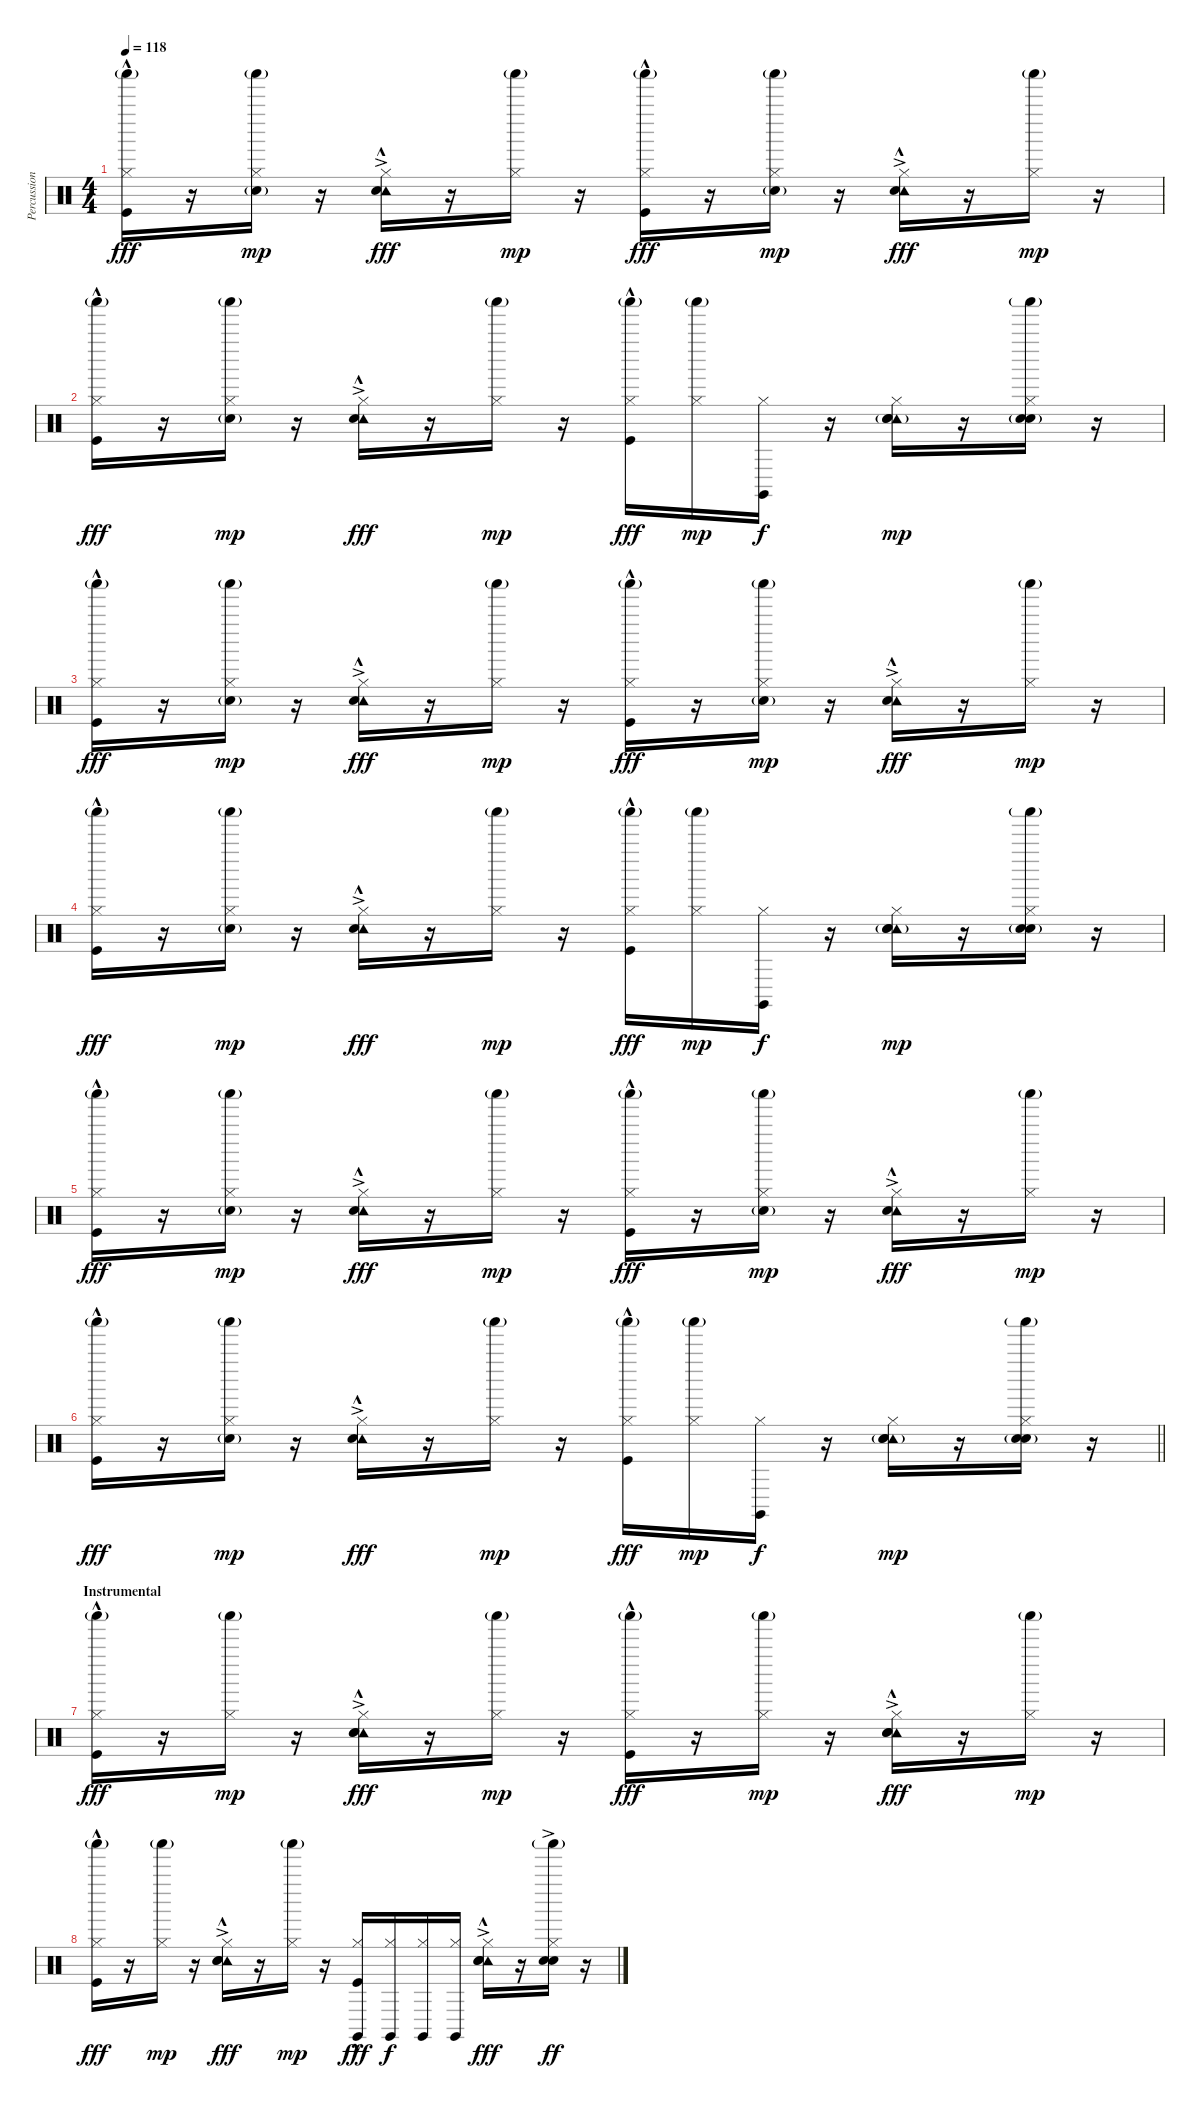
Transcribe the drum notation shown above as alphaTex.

\track ("Percussion" "Percussion") {instrument percussion}
\staff {score}
\articulation defaults
\ts (4 4)
\tempo 118
\clef neutral
\ks c
("Shaker (hit)"{g} "Hi-Hat (closed)" "Kick (hit)"{hac}).16{dy fff} r.16 ("Shaker (hit)"{g} "Hi-Hat (closed)" "Hand Clap (hit)"{g}).16{dy mp} r.16 ("Tambourine (hit)"{ac} "Hi-Hat (closed)" "Snare (hit) 2"{hac}).16{dy fff} r.16 ("Shaker (hit)"{g} "Hi-Hat (closed)").16{dy mp} r.16 ("Shaker (hit)"{g} "Hi-Hat (closed)" "Kick (hit)"{hac}).16{dy fff} r.16 ("Shaker (hit)"{g} "Hi-Hat (closed)" "Hand Clap (hit)"{g}).16{dy mp} r.16 ("Tambourine (hit)"{ac} "Hi-Hat (closed)" "Snare (hit) 2"{hac}).16{dy fff} r.16 ("Shaker (hit)"{g} "Hi-Hat (closed)").16{dy mp} r.16 |
("Shaker (hit)"{g} "Hi-Hat (closed)" "Kick (hit)"{hac}).16{dy fff} r.16 ("Shaker (hit)"{g} "Hi-Hat (closed)" "Hand Clap (hit)"{g}).16{dy mp} r.16 ("Tambourine (hit)"{ac} "Hi-Hat (closed)" "Snare (hit) 2"{hac}).16{dy fff} r.16 ("Shaker (hit)"{g} "Hi-Hat (closed)").16{dy mp} r.16 ("Shaker (hit)"{g} "Hi-Hat (closed)" "Kick (hit)"{hac}).16{dy fff} ("Shaker (hit)"{g} "Hi-Hat (closed)").16{dy mp} ("Claves (hit)" "Hi-Hat (closed)").16{dy f} r.16 ("Tambourine (hit)" "Hi-Hat (closed)" "Hand Clap (hit)" "Snare (hit) 2"{g}).16{dy mp} r.16 ("Shaker (hit)"{g} "Hi-Hat (closed)" "Hand Clap (hit)" "Snare (hit) 2"{g}).16 r.16 |
("Shaker (hit)"{g} "Hi-Hat (closed)" "Kick (hit)"{hac}).16{dy fff} r.16 ("Shaker (hit)"{g} "Hi-Hat (closed)" "Hand Clap (hit)"{g}).16{dy mp} r.16 ("Tambourine (hit)"{ac} "Hi-Hat (closed)" "Snare (hit) 2"{hac}).16{dy fff} r.16 ("Shaker (hit)"{g} "Hi-Hat (closed)").16{dy mp} r.16 ("Shaker (hit)"{g} "Hi-Hat (closed)" "Kick (hit)"{hac}).16{dy fff} r.16 ("Shaker (hit)"{g} "Hi-Hat (closed)" "Hand Clap (hit)"{g}).16{dy mp} r.16 ("Tambourine (hit)"{ac} "Hi-Hat (closed)" "Snare (hit) 2"{hac}).16{dy fff} r.16 ("Shaker (hit)"{g} "Hi-Hat (closed)").16{dy mp} r.16 |
("Shaker (hit)"{g} "Hi-Hat (closed)" "Kick (hit)"{hac}).16{dy fff} r.16 ("Shaker (hit)"{g} "Hi-Hat (closed)" "Hand Clap (hit)"{g}).16{dy mp} r.16 ("Tambourine (hit)"{ac} "Hi-Hat (closed)" "Snare (hit) 2"{hac}).16{dy fff} r.16 ("Shaker (hit)"{g} "Hi-Hat (closed)").16{dy mp} r.16 ("Shaker (hit)"{g} "Hi-Hat (closed)" "Kick (hit)"{hac}).16{dy fff} ("Shaker (hit)"{g} "Hi-Hat (closed)").16{dy mp} ("Claves (hit)" "Hi-Hat (closed)").16{dy f} r.16 ("Tambourine (hit)" "Hi-Hat (closed)" "Hand Clap (hit)" "Snare (hit) 2"{g}).16{dy mp} r.16 ("Shaker (hit)"{g} "Hi-Hat (closed)" "Hand Clap (hit)" "Snare (hit) 2"{g}).16 r.16 |
("Shaker (hit)"{g} "Hi-Hat (closed)" "Kick (hit)"{hac}).16{dy fff} r.16 ("Shaker (hit)"{g} "Hi-Hat (closed)" "Hand Clap (hit)"{g}).16{dy mp} r.16 ("Tambourine (hit)"{ac} "Hi-Hat (closed)" "Snare (hit) 2"{hac}).16{dy fff} r.16 ("Shaker (hit)"{g} "Hi-Hat (closed)").16{dy mp} r.16 ("Shaker (hit)"{g} "Hi-Hat (closed)" "Kick (hit)"{hac}).16{dy fff} r.16 ("Shaker (hit)"{g} "Hi-Hat (closed)" "Hand Clap (hit)"{g}).16{dy mp} r.16 ("Tambourine (hit)"{ac} "Hi-Hat (closed)" "Snare (hit) 2"{hac}).16{dy fff} r.16 ("Shaker (hit)"{g} "Hi-Hat (closed)").16{dy mp} r.16 |
\barLineRight lightlight
("Shaker (hit)"{g} "Hi-Hat (closed)" "Kick (hit)"{hac}).16{dy fff} r.16 ("Shaker (hit)"{g} "Hi-Hat (closed)" "Hand Clap (hit)"{g}).16{dy mp} r.16 ("Tambourine (hit)"{ac} "Hi-Hat (closed)" "Snare (hit) 2"{hac}).16{dy fff} r.16 ("Shaker (hit)"{g} "Hi-Hat (closed)").16{dy mp} r.16 ("Shaker (hit)"{g} "Hi-Hat (closed)" "Kick (hit)"{hac}).16{dy fff} ("Shaker (hit)"{g} "Hi-Hat (closed)").16{dy mp} ("Claves (hit)" "Hi-Hat (closed)").16{dy f} r.16 ("Tambourine (hit)" "Hi-Hat (closed)" "Hand Clap (hit)" "Snare (hit) 2"{g}).16{dy mp} r.16 ("Shaker (hit)"{g} "Hi-Hat (closed)" "Hand Clap (hit)" "Snare (hit) 2"{g}).16 r.16 |
\section ("" "Instrumental")
("Shaker (hit)"{g} "Hi-Hat (closed)" "Kick (hit)"{hac}).16{dy fff} r.16 ("Shaker (hit)"{g} "Hi-Hat (closed)").16{dy mp} r.16 ("Tambourine (hit)"{ac} "Hi-Hat (closed)" "Hand Clap (hit)" "Snare (hit) 2"{hac}).16{dy fff} r.16 ("Shaker (hit)"{g} "Hi-Hat (closed)").16{dy mp} r.16 ("Shaker (hit)"{g} "Hi-Hat (closed)" "Kick (hit)"{hac}).16{dy fff} r.16 ("Shaker (hit)"{g} "Hi-Hat (closed)").16{dy mp} r.16 ("Tambourine (hit)"{ac} "Hi-Hat (closed)" "Hand Clap (hit)" "Snare (hit) 2"{hac}).16{dy fff} r.16 ("Shaker (hit)"{g} "Hi-Hat (closed)").16{dy mp} r.16 |
("Shaker (hit)"{g} "Hi-Hat (closed)" "Kick (hit)"{hac}).16{dy fff} r.16 ("Shaker (hit)"{g} "Hi-Hat (closed)").16{dy mp} r.16 ("Tambourine (hit)"{ac} "Hi-Hat (closed)" "Hand Clap (hit)" "Snare (hit) 2"{hac}).16{dy fff} r.16 ("Shaker (hit)"{g} "Hi-Hat (closed)").16{dy mp} r.16 ("Claves (hit)" "Hi-Hat (closed)" "Kick (hit)"{hac}).16{dy fff} ("Claves (hit)" "Hi-Hat (closed)").16{dy f} ("Claves (hit)" "Hi-Hat (closed)").16 ("Claves (hit)" "Hi-Hat (closed)").16 ("Tambourine (hit)"{ac} "Hi-Hat (closed)" "Hand Clap (hit)"{ac} "Snare (hit) 2"{hac}).16{dy fff} r.16 ("Shaker (hit)"{g} "Hi-Hat (closed)" "Hand Clap (hit)"{ac} "Snare (hit) 2").16{dy ff} r.16
